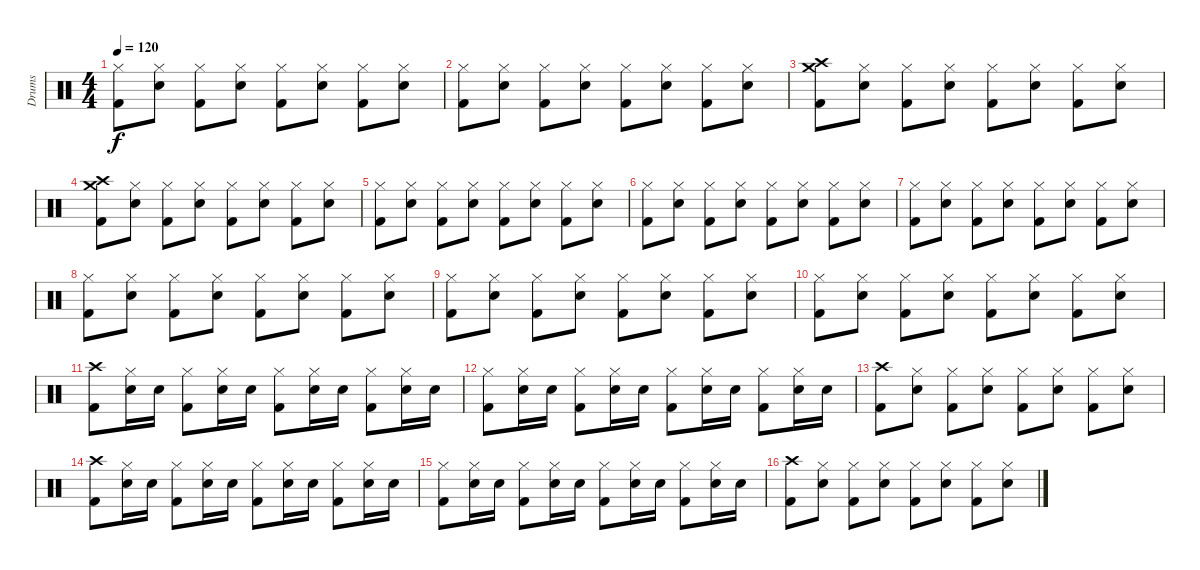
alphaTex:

\track ("Drums" "Drums") {instrument percussion}
\staff {score}
\articulation defaults
\ts (4 4)
\tempo 120
\clef neutral
\ks c
("Hi-Hat (closed)" "Kick (hit) 2").8{dy f} ("Hi-Hat (closed)" "Electric Snare (hit)").8 ("Hi-Hat (closed)" "Kick (hit) 2").8 ("Hi-Hat (closed)" "Electric Snare (hit)").8 ("Hi-Hat (closed)" "Kick (hit) 2").8 ("Hi-Hat (closed)" "Electric Snare (hit)").8 ("Hi-Hat (closed)" "Kick (hit) 2").8 ("Hi-Hat (closed)" "Electric Snare (hit)").8 |
("Hi-Hat (closed)" "Kick (hit) 2").8 ("Hi-Hat (closed)" "Electric Snare (hit)").8 ("Hi-Hat (closed)" "Kick (hit) 2").8 ("Hi-Hat (closed)" "Electric Snare (hit)").8 ("Hi-Hat (closed)" "Kick (hit) 2").8 ("Hi-Hat (closed)" "Electric Snare (hit)").8 ("Hi-Hat (closed)" "Kick (hit) 2").8 ("Hi-Hat (closed)" "Electric Snare (hit)").8 |
("Crash high (hit)" "Crash medium (hit)" "Kick (hit) 2").8 ("Hi-Hat (closed)" "Electric Snare (hit)").8 ("Hi-Hat (closed)" "Kick (hit) 2").8 ("Hi-Hat (closed)" "Electric Snare (hit)").8 ("Hi-Hat (closed)" "Kick (hit) 2").8 ("Hi-Hat (closed)" "Electric Snare (hit)").8 ("Hi-Hat (closed)" "Kick (hit) 2").8 ("Hi-Hat (closed)" "Electric Snare (hit)").8 |
("Crash high (hit)" "Crash medium (hit)" "Kick (hit) 2").8 ("Hi-Hat (closed)" "Electric Snare (hit)").8 ("Hi-Hat (closed)" "Kick (hit) 2").8 ("Hi-Hat (closed)" "Electric Snare (hit)").8 ("Hi-Hat (closed)" "Kick (hit) 2").8 ("Hi-Hat (closed)" "Electric Snare (hit)").8 ("Hi-Hat (closed)" "Kick (hit) 2").8 ("Hi-Hat (closed)" "Electric Snare (hit)").8 |
("Hi-Hat (closed)" "Kick (hit) 2").8 ("Hi-Hat (closed)" "Electric Snare (hit)").8 ("Hi-Hat (closed)" "Kick (hit) 2").8 ("Hi-Hat (closed)" "Electric Snare (hit)").8 ("Hi-Hat (closed)" "Kick (hit) 2").8 ("Hi-Hat (closed)" "Electric Snare (hit)").8 ("Hi-Hat (closed)" "Kick (hit) 2").8 ("Hi-Hat (closed)" "Electric Snare (hit)").8 |
("Hi-Hat (closed)" "Kick (hit) 2").8 ("Hi-Hat (closed)" "Electric Snare (hit)").8 ("Hi-Hat (closed)" "Kick (hit) 2").8 ("Hi-Hat (closed)" "Electric Snare (hit)").8 ("Hi-Hat (closed)" "Kick (hit) 2").8 ("Hi-Hat (closed)" "Electric Snare (hit)").8 ("Hi-Hat (closed)" "Kick (hit) 2").8 ("Hi-Hat (closed)" "Electric Snare (hit)").8 |
("Hi-Hat (closed)" "Kick (hit) 2").8 ("Hi-Hat (closed)" "Electric Snare (hit)").8 ("Hi-Hat (closed)" "Kick (hit) 2").8 ("Hi-Hat (closed)" "Electric Snare (hit)").8 ("Hi-Hat (closed)" "Kick (hit) 2").8 ("Hi-Hat (closed)" "Electric Snare (hit)").8 ("Hi-Hat (closed)" "Kick (hit) 2").8 ("Hi-Hat (closed)" "Electric Snare (hit)").8 |
("Hi-Hat (closed)" "Kick (hit) 2").8 ("Hi-Hat (closed)" "Electric Snare (hit)").8 ("Hi-Hat (closed)" "Kick (hit) 2").8 ("Hi-Hat (closed)" "Electric Snare (hit)").8 ("Hi-Hat (closed)" "Kick (hit) 2").8 ("Hi-Hat (closed)" "Electric Snare (hit)").8 ("Hi-Hat (closed)" "Kick (hit) 2").8 ("Hi-Hat (closed)" "Electric Snare (hit)").8 |
("Hi-Hat (closed)" "Kick (hit) 2").8 ("Hi-Hat (closed)" "Electric Snare (hit)").8 ("Hi-Hat (closed)" "Kick (hit) 2").8 ("Hi-Hat (closed)" "Electric Snare (hit)").8 ("Hi-Hat (closed)" "Kick (hit) 2").8 ("Hi-Hat (closed)" "Electric Snare (hit)").8 ("Hi-Hat (closed)" "Kick (hit) 2").8 ("Hi-Hat (closed)" "Electric Snare (hit)").8 |
("Hi-Hat (closed)" "Kick (hit) 2").8 ("Hi-Hat (closed)" "Electric Snare (hit)").8 ("Hi-Hat (closed)" "Kick (hit) 2").8 ("Hi-Hat (closed)" "Electric Snare (hit)").8 ("Hi-Hat (closed)" "Kick (hit) 2").8 ("Hi-Hat (closed)" "Electric Snare (hit)").8 ("Hi-Hat (closed)" "Kick (hit) 2").8 ("Hi-Hat (closed)" "Electric Snare (hit)").8 |
("Crash high (hit)" "Kick (hit) 2").8 ("Hi-Hat (closed)" "Electric Snare (hit)").16 "Electric Snare (hit)".16 ("Hi-Hat (closed)" "Kick (hit) 2").8 ("Hi-Hat (closed)" "Electric Snare (hit)").16 "Electric Snare (hit)".16 ("Hi-Hat (closed)" "Kick (hit) 2").8 ("Hi-Hat (closed)" "Electric Snare (hit)").16 "Electric Snare (hit)".16 ("Hi-Hat (closed)" "Kick (hit) 2").8 ("Hi-Hat (closed)" "Electric Snare (hit)").16 "Electric Snare (hit)".16 |
("Hi-Hat (closed)" "Kick (hit) 2").8 ("Hi-Hat (closed)" "Electric Snare (hit)").16 "Electric Snare (hit)".16 ("Hi-Hat (closed)" "Kick (hit) 2").8 ("Hi-Hat (closed)" "Electric Snare (hit)").16 "Electric Snare (hit)".16 ("Hi-Hat (closed)" "Kick (hit) 2").8 ("Hi-Hat (closed)" "Electric Snare (hit)").16 "Electric Snare (hit)".16 ("Hi-Hat (closed)" "Kick (hit) 2").8 ("Hi-Hat (closed)" "Electric Snare (hit)").16 "Electric Snare (hit)".16 |
("Crash high (hit)" "Kick (hit) 2").8 ("Hi-Hat (closed)" "Electric Snare (hit)").8 ("Hi-Hat (closed)" "Kick (hit) 2").8 ("Hi-Hat (closed)" "Electric Snare (hit)").8 ("Hi-Hat (closed)" "Kick (hit) 2").8 ("Hi-Hat (closed)" "Electric Snare (hit)").8 ("Hi-Hat (closed)" "Kick (hit) 2").8 ("Hi-Hat (closed)" "Electric Snare (hit)").8 |
("Crash high (hit)" "Kick (hit) 2").8 ("Hi-Hat (closed)" "Electric Snare (hit)").16 "Electric Snare (hit)".16 ("Hi-Hat (closed)" "Kick (hit) 2").8 ("Hi-Hat (closed)" "Electric Snare (hit)").16 "Electric Snare (hit)".16 ("Hi-Hat (closed)" "Kick (hit) 2").8 ("Hi-Hat (closed)" "Electric Snare (hit)").16 "Electric Snare (hit)".16 ("Hi-Hat (closed)" "Kick (hit) 2").8 ("Hi-Hat (closed)" "Electric Snare (hit)").16 "Electric Snare (hit)".16 |
("Hi-Hat (closed)" "Kick (hit) 2").8 ("Hi-Hat (closed)" "Electric Snare (hit)").16 "Electric Snare (hit)".16 ("Hi-Hat (closed)" "Kick (hit) 2").8 ("Hi-Hat (closed)" "Electric Snare (hit)").16 "Electric Snare (hit)".16 ("Hi-Hat (closed)" "Kick (hit) 2").8 ("Hi-Hat (closed)" "Electric Snare (hit)").16 "Electric Snare (hit)".16 ("Hi-Hat (closed)" "Kick (hit) 2").8 ("Hi-Hat (closed)" "Electric Snare (hit)").16 "Electric Snare (hit)".16 |
("Crash high (hit)" "Kick (hit) 2").8 ("Hi-Hat (closed)" "Electric Snare (hit)").8 ("Hi-Hat (closed)" "Kick (hit) 2").8 ("Hi-Hat (closed)" "Electric Snare (hit)").8 ("Hi-Hat (closed)" "Kick (hit) 2").8 ("Hi-Hat (closed)" "Electric Snare (hit)").8 ("Hi-Hat (closed)" "Kick (hit) 2").8 ("Hi-Hat (closed)" "Electric Snare (hit)").8
